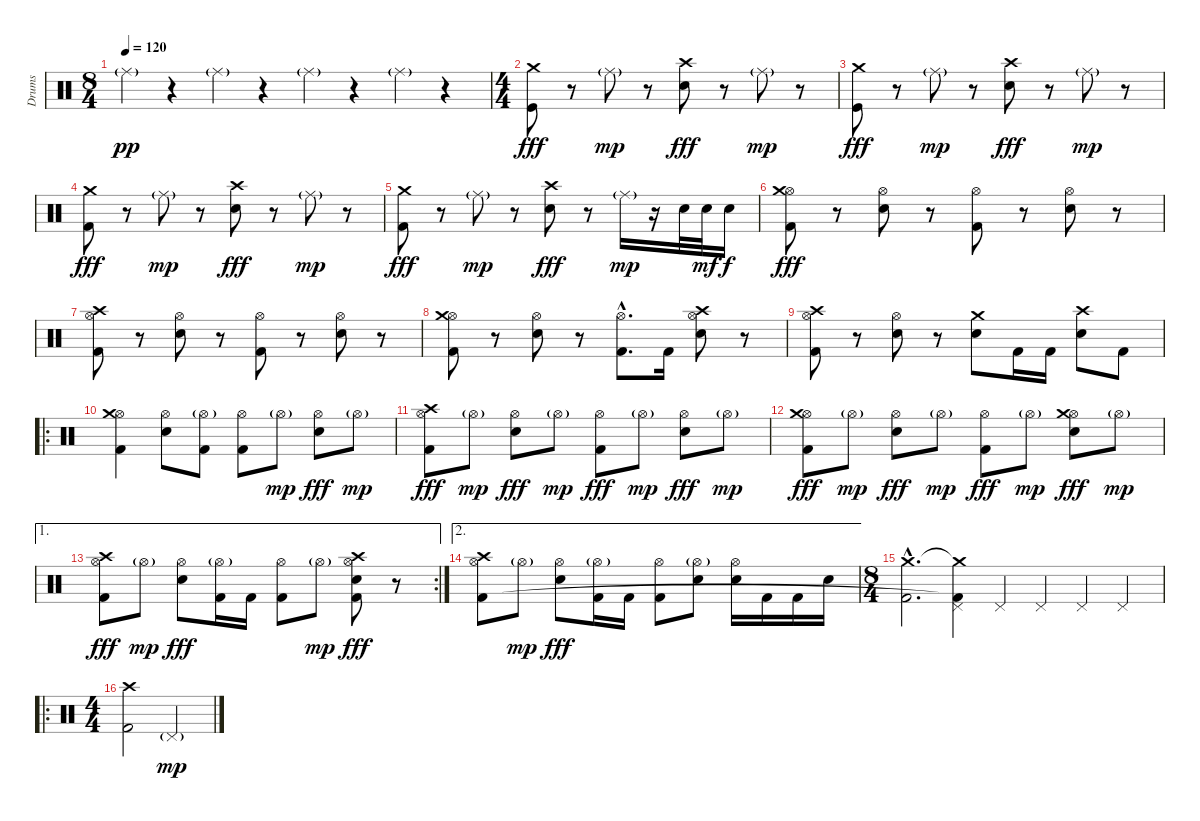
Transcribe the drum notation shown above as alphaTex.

\track ("Drums" "Drums") {instrument percussion}
\staff {score}
\articulation defaults
\ts (8 4)
\tempo 120
\clef neutral
\ks c "Ride (middle)"{g}.4{dy pp}
r.4 "Ride (middle)"{g}.4 r.4 "Ride (middle)"{g}.4 r.4 "Ride (middle)"{g}.4 r.4 |
\ts (4 4)
("Crash medium (hit)" "Kick (hit)").8{dy fff} r.8 "Ride (middle)"{g}.8{dy mp} r.8 ("Crash high (hit)" "Electric Snare (hit)").8{dy fff} r.8 "Ride (middle)"{g}.8{dy mp} r.8 |
("Crash medium (hit)" "Kick (hit)").8{dy fff} r.8 "Ride (middle)"{g}.8{dy mp} r.8 ("Crash high (hit)" "Electric Snare (hit)").8{dy fff} r.8 "Ride (middle)"{g}.8{dy mp} r.8 |
("Crash medium (hit)" "Kick (hit) 2").8{dy fff} r.8 "Ride (middle)"{g}.8{dy mp} r.8 ("Crash high (hit)" "Electric Snare (hit)").8{dy fff} r.8 "Ride (middle)"{g}.8{dy mp} r.8 |
("Crash medium (hit)" "Kick (hit) 2").8{dy fff} r.8 "Ride (middle)"{g}.8{dy mp} r.8 ("Crash high (hit)" "Electric Snare (hit)").8{dy fff} r.8 "Ride (middle)"{g}.16{dy mp} r.16 "Electric Snare (hit)".32 "Electric Snare (hit)".32{dy mf} "Electric Snare (hit)".16{dy f} |
("Hi-Hat (open)" "Crash medium (hit)" "Kick (hit) 2").8{dy fff} r.8 ("Hi-Hat (open)" "Electric Snare (hit)").8 r.8 ("Hi-Hat (open)" "Kick (hit) 2").8 r.8 ("Hi-Hat (open)" "Electric Snare (hit)").8 r.8 |
("Hi-Hat (open)" "Crash high (hit)" "Kick (hit) 2").8 r.8 ("Hi-Hat (open)" "Electric Snare (hit)").8 r.8 ("Hi-Hat (open)" "Kick (hit) 2").8 r.8 ("Hi-Hat (open)" "Electric Snare (hit)").8 r.8 |
("Hi-Hat (open)" "Crash medium (hit)" "Kick (hit) 2").8 r.8 ("Hi-Hat (open)" "Electric Snare (hit)").8 r.8 ("Hi-Hat (open)"{hac} "Kick (hit) 2"{hac}).8{d} "Kick (hit) 2".16 ("Hi-Hat (open)" "Crash high (hit)" "Electric Snare (hit)").8 r.8 |
("Hi-Hat (open)" "Crash high (hit)" "Kick (hit) 2").8 r.8 ("Hi-Hat (open)" "Electric Snare (hit)").8 r.8 ("Crash medium (hit)" "Electric Snare (hit)").8 "Kick (hit) 2".16 "Kick (hit) 2".16 ("Crash high (hit)" "Electric Snare (hit)").8 "Kick (hit) 2".8 |
\ro
("Hi-Hat (open)" "Crash medium (hit)" "Kick (hit) 2").4 ("Hi-Hat (open)" "Electric Snare (hit)").8 ("Hi-Hat (open)"{g} "Kick (hit) 2").8 ("Hi-Hat (open)" "Kick (hit) 2").8 "Hi-Hat (open)"{g}.8{dy mp} ("Hi-Hat (open)" "Electric Snare (hit)").8{dy fff} "Hi-Hat (open)"{g}.8{dy mp} |
("Hi-Hat (open)" "Crash high (hit)" "Kick (hit) 2").8{dy fff} "Hi-Hat (open)"{g}.8{dy mp} ("Hi-Hat (open)" "Electric Snare (hit)").8{dy fff} "Hi-Hat (open)"{g}.8{dy mp} ("Hi-Hat (open)" "Kick (hit) 2").8{dy fff} "Hi-Hat (open)"{g}.8{dy mp} ("Hi-Hat (open)" "Electric Snare (hit)").8{dy fff} "Hi-Hat (open)"{g}.8{dy mp} |
("Hi-Hat (open)" "Crash medium (hit)" "Kick (hit) 2").8{dy fff} "Hi-Hat (open)"{g}.8{dy mp} ("Hi-Hat (open)" "Electric Snare (hit)").8{dy fff} "Hi-Hat (open)"{g}.8{dy mp} ("Hi-Hat (open)" "Kick (hit) 2").8{dy fff} "Hi-Hat (open)"{g}.8{dy mp} ("Hi-Hat (open)" "Crash medium (hit)" "Electric Snare (hit)").8{dy fff} "Hi-Hat (open)"{g}.8{dy mp} |
\ae 1
\rc 2
("Hi-Hat (open)" "Crash high (hit)" "Kick (hit) 2").8{dy fff} "Hi-Hat (open)"{g}.8{dy mp} ("Hi-Hat (open)" "Electric Snare (hit)").8{dy fff} ("Hi-Hat (open)"{g} "Kick (hit) 2").16 "Kick (hit) 2".16 ("Hi-Hat (open)" "Kick (hit) 2").8 "Hi-Hat (open)"{g}.8{dy mp} ("Hi-Hat (open)" "Crash high (hit)" "Electric Snare (hit)" "Kick (hit) 2").8{dy fff} r.8 |
\ae 2
("Hi-Hat (open)" "Crash high (hit)" "Kick (hit) 2").8 "Hi-Hat (open)"{g}.8{dy mp} ("Hi-Hat (open)" "Electric Snare (hit)").8{dy fff} ("Hi-Hat (open)"{g} "Kick (hit) 2").16 "Kick (hit) 2".16 ("Hi-Hat (open)" "Kick (hit) 2").8 ("Hi-Hat (open)"{g} "Electric Snare (hit)").8 ("Hi-Hat (open)" "Electric Snare (hit)").16 "Kick (hit) 2".16 "Kick (hit) 2".16 "Electric Snare (hit)".16 |
\ts (8 4)
("Crash medium (hit)"{hac} "Kick (hit) 2"{hac}).2{d} ("Crash medium (hit)"{t} "Pedal Hi-Hat (hit)" "Kick (hit) 2"{t}).4 "Pedal Hi-Hat (hit)".4 "Pedal Hi-Hat (hit)".4 "Pedal Hi-Hat (hit)".4 "Pedal Hi-Hat (hit)".4 |
\ro
\ts (4 4)
("Crash high (hit)" "Kick (hit) 2").2{volume 13} "Pedal Hi-Hat (hit)"{g}.2{dy mp}
